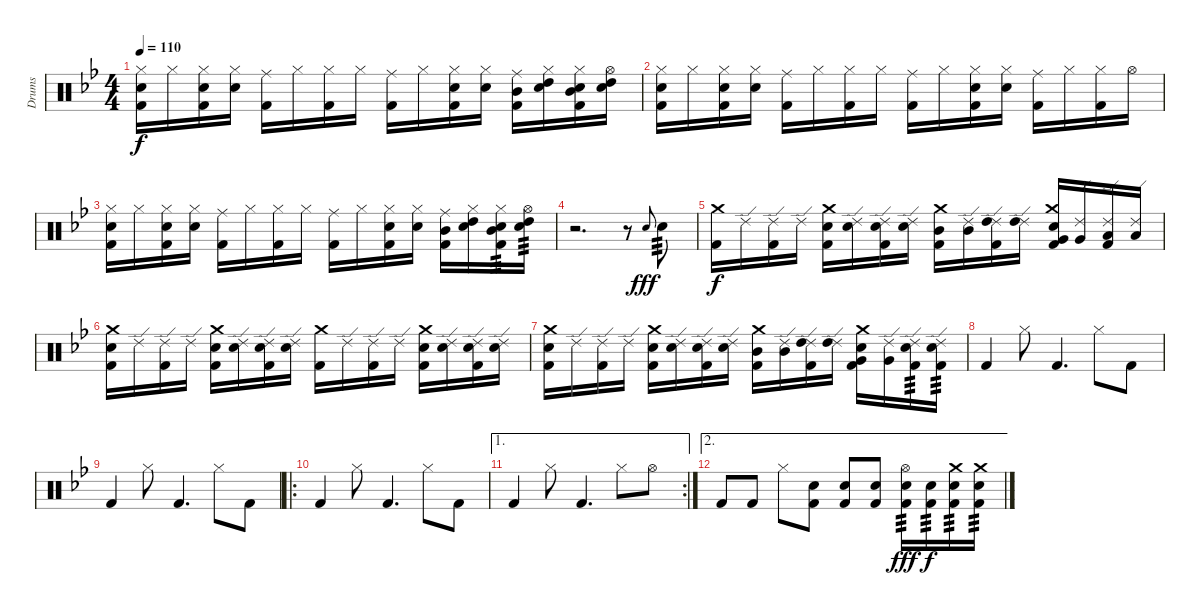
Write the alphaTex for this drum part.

\track ("Drums" "Drums") {instrument percussion}
\staff {score}
\articulation defaults
\ts (4 4)
\tempo 110
\clef neutral
\ks bb
("Hi-Hat (closed)" "Electric Snare (hit)" "Kick (hit) 2").16{dy f} "Hi-Hat (closed)".16 ("Hi-Hat (closed)" "Electric Snare (hit)" "Kick (hit) 2").16 ("Hi-Hat (closed)" "Electric Snare (hit)").16 ("Ride (middle)" "Kick (hit) 2").16 "Hi-Hat (closed)".16 ("Hi-Hat (closed)" "Kick (hit) 2").16 "Hi-Hat (closed)".16 ("Ride (middle)" "Kick (hit) 2").16 "Hi-Hat (closed)".16 ("Hi-Hat (closed)" "Electric Snare (hit)" "Kick (hit) 2").16 ("Hi-Hat (closed)" "Electric Snare (hit)").16 ("Ride (middle)" "Mid Tom (hit)" "Kick (hit) 2").16 ("Hi-Hat (closed)" "Electric Snare (hit)" "High Tom (hit)").16 ("Hi-Hat (closed)" "Electric Snare (hit)" "Mid Tom (hit)" "Kick (hit) 2").16 ("Hi-Hat (open)" "Electric Snare (hit)" "High Tom (hit)").16 |
("Hi-Hat (closed)" "Electric Snare (hit)" "Kick (hit) 2").16 "Hi-Hat (closed)".16 ("Hi-Hat (closed)" "Electric Snare (hit)" "Kick (hit) 2").16 ("Hi-Hat (closed)" "Electric Snare (hit)").16 ("Ride (middle)" "Kick (hit) 2").16 "Hi-Hat (closed)".16 ("Hi-Hat (closed)" "Kick (hit) 2").16 "Hi-Hat (closed)".16 ("Ride (middle)" "Kick (hit) 2").16 "Hi-Hat (closed)".16 ("Hi-Hat (closed)" "Electric Snare (hit)" "Kick (hit) 2").16 ("Hi-Hat (closed)" "Electric Snare (hit)").16 ("Ride (middle)" "Kick (hit) 2").16 "Hi-Hat (closed)".16 ("Hi-Hat (closed)" "Kick (hit) 2").16 "Hi-Hat (open)".16 |
("Hi-Hat (closed)" "Electric Snare (hit)" "Kick (hit) 2").16 "Hi-Hat (closed)".16 ("Hi-Hat (closed)" "Electric Snare (hit)" "Kick (hit) 2").16 ("Hi-Hat (closed)" "Electric Snare (hit)").16 ("Ride (middle)" "Kick (hit) 2").16 "Hi-Hat (closed)".16 ("Hi-Hat (closed)" "Kick (hit) 2").16 "Hi-Hat (closed)".16 ("Ride (middle)" "Kick (hit) 2").16 "Hi-Hat (closed)".16 ("Hi-Hat (closed)" "Electric Snare (hit)" "Kick (hit) 2").16 ("Hi-Hat (closed)" "Electric Snare (hit)").16 ("Ride (middle)" "Mid Tom (hit)" "Kick (hit) 2").16 ("Hi-Hat (closed)" "Electric Snare (hit)" "High Tom (hit)").16 ("Hi-Hat (closed)" "Electric Snare (hit)" "Mid Tom (hit)" "Kick (hit) 2").16{tp 3} ("Hi-Hat (open)" "Electric Snare (hit)" "High Tom (hit)").16{tp 3} |
r.2{d} r.8 "Electric Snare (hit)"{h}.8{gr onbeat dy fff} "Electric Snare (hit)".8{tp 3} |
("Crash medium (hit)" "Kick (hit) 2").16{dy f} "Ride (edge) 2".16 ("Ride (edge) 2" "Kick (hit) 2").16 "Ride (edge) 2".16 ("Crash medium (hit)" "Electric Snare (hit)" "Kick (hit) 2").16 ("Ride (edge) 2" "Electric Snare (hit)").16 ("Ride (edge) 2" "Electric Snare (hit)" "Kick (hit) 2").16 ("Ride (edge) 2" "Electric Snare (hit)").16 ("Crash medium (hit)" "Mid Tom (hit)" "Kick (hit) 2").16 ("Ride (edge) 2" "Mid Tom (hit)").16 ("Ride (edge) 2" "High Tom (hit)" "Kick (hit) 2").16 ("Ride (edge) 2" "High Tom (hit)").16 ("Crash medium (hit)" "Electric Snare (hit)" "Very Low Tom (hit)" "Kick (hit) 2").16 ("Ride (edge) 2" "Very Low Tom (hit)").16 ("Ride (edge) 2" "Low Floor Tom (hit)" "Kick (hit) 2").16 ("Ride (edge) 2" "Low Floor Tom (hit)").16 |
("Crash medium (hit)" "Electric Snare (hit)" "Kick (hit) 2").16 "Ride (edge) 2".16 ("Ride (edge) 2" "Kick (hit) 2").16 "Ride (edge) 2".16 ("Crash medium (hit)" "Electric Snare (hit)" "Kick (hit) 2").16 ("Ride (edge) 2" "Electric Snare (hit)").16 ("Ride (edge) 2" "Electric Snare (hit)" "Kick (hit) 2").16 ("Ride (edge) 2" "Electric Snare (hit)").16 ("Crash medium (hit)" "Kick (hit) 2").16 "Ride (edge) 2".16 ("Ride (edge) 2" "Kick (hit) 2").16 "Ride (edge) 2".16 ("Crash medium (hit)" "Electric Snare (hit)" "Kick (hit) 2").16 ("Ride (edge) 2" "Electric Snare (hit)").16 ("Ride (edge) 2" "Electric Snare (hit)" "Kick (hit) 2").16 ("Ride (edge) 2" "Electric Snare (hit)").16 |
("Crash medium (hit)" "Electric Snare (hit)" "Kick (hit) 2").16 "Ride (edge) 2".16 ("Ride (edge) 2" "Kick (hit) 2").16 "Ride (edge) 2".16 ("Crash medium (hit)" "Electric Snare (hit)" "Kick (hit) 2").16 ("Ride (edge) 2" "Electric Snare (hit)").16 ("Ride (edge) 2" "Electric Snare (hit)" "Kick (hit) 2").16 ("Ride (edge) 2" "Electric Snare (hit)").16 ("Crash medium (hit)" "Mid Tom (hit)" "Kick (hit) 2").16 ("Ride (edge) 2" "Mid Tom (hit)").16 ("Ride (edge) 2" "High Tom (hit)" "Kick (hit) 2").16 ("Ride (edge) 2" "High Tom (hit)").16 ("Crash medium (hit)" "Electric Snare (hit)" "Very Low Tom (hit)" "Kick (hit) 2").16 ("Ride (edge) 2" "Very Low Tom (hit)").16 ("Ride (edge) 2" "Electric Snare (hit)" "Kick (hit) 2").16{tp 3} ("Ride (edge) 2" "Electric Snare (hit)" "Kick (hit) 2").16{tp 3} |
"Kick (hit) 2".4 "Hi-Hat (closed)".8 "Kick (hit) 2".4{d} "Hi-Hat (closed)".8 "Kick (hit) 2".8 |
"Kick (hit) 2".4 "Hi-Hat (closed)".8 "Kick (hit) 2".4{d} "Hi-Hat (closed)".8 "Kick (hit) 2".8 |
\ro "Kick (hit) 2".4 "Hi-Hat (closed)".8 "Kick (hit) 2".4{d} "Hi-Hat (closed)".8 "Kick (hit) 2".8
|
\ae 1
\rc 2 "Kick (hit) 2".4 "Hi-Hat (closed)".8 "Kick (hit) 2".4{d} "Hi-Hat (closed)".8 "Hi-Hat (open)".8
|
\ae 2 "Kick (hit) 2".8 "Kick (hit) 2".8 "Hi-Hat (closed)".8
("Electric Snare (hit)" "Kick (hit) 2").8 ("Electric Snare (hit)" "Kick (hit) 2").8{volume 5} ("Electric Snare (hit)" "Kick (hit) 2").8{volume 7} ("Hi-Hat (open)" "Electric Snare (hit)" "Kick (hit) 2").16{tp 3 dy fff volume 9} ("Electric Snare (hit)" "Kick (hit) 2").16{tp 3 dy f volume 11} ("Crash medium (hit)" "Electric Snare (hit)" "Kick (hit) 2").16{tp 3 volume 13} ("Crash medium (hit)" "Electric Snare (hit)" "Kick (hit) 2").16{tp 3 volume 15}
